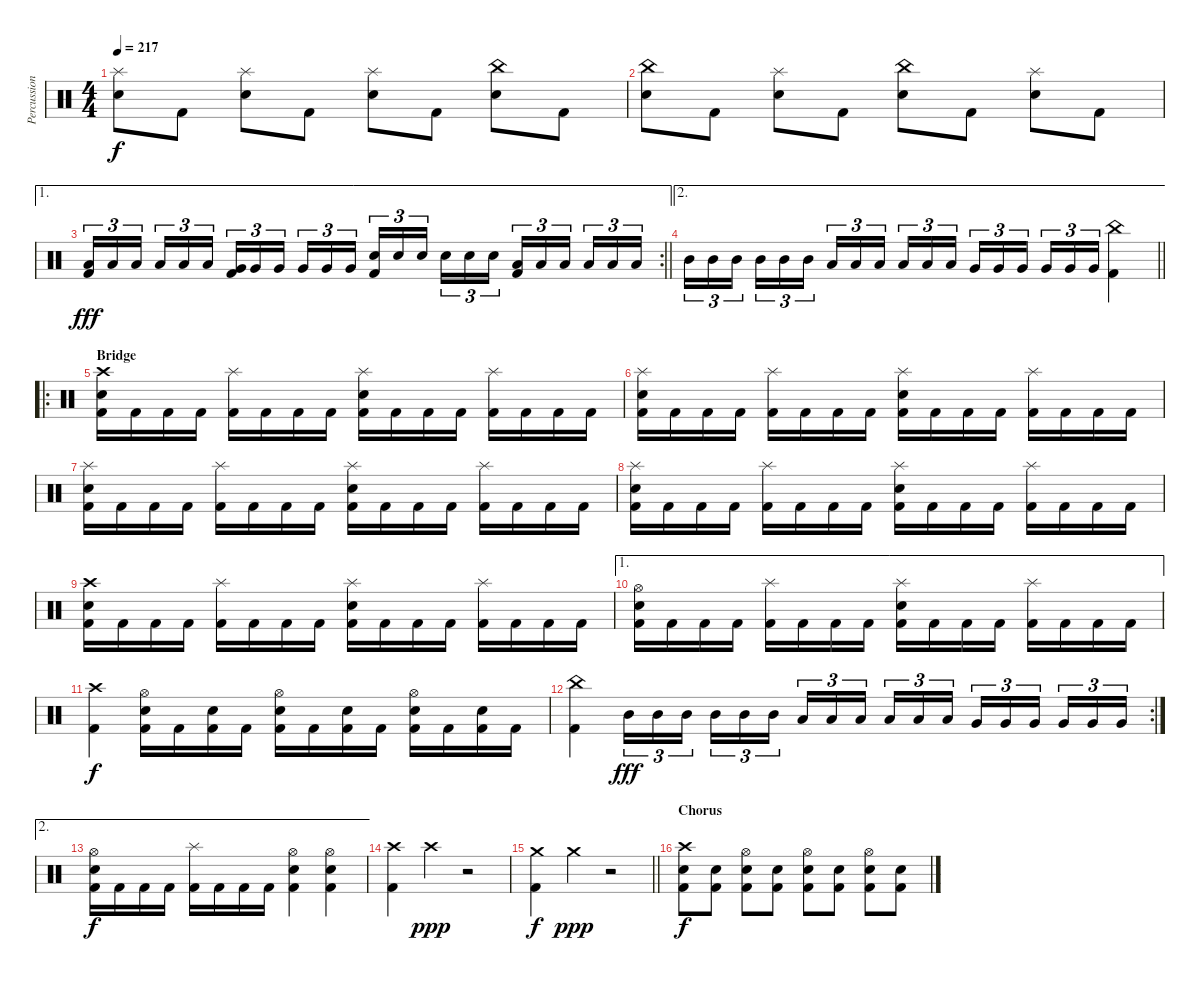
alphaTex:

\track ("Percussion" "Percussion") {instrument percussion}
\staff {score}
\articulation defaults
\ts (4 4)
\tempo 217
\clef neutral
\ks c
("Splash (hit)" "Electric Snare (hit)").8{dy f} "Kick (hit) 2".8 ("Splash (hit)" "Electric Snare (hit)").8 "Kick (hit) 2".8 ("Splash (hit)" "Electric Snare (hit)").8 "Kick (hit) 2".8 ("China (hit)" "Electric Snare (hit)").8 "Kick (hit) 2".8 |
("China (hit)" "Electric Snare (hit)").8 "Kick (hit) 2".8 ("Splash (hit)" "Electric Snare (hit)").8 "Kick (hit) 2".8 ("China (hit)" "Electric Snare (hit)").8 "Kick (hit) 2".8 ("Splash (hit)" "Electric Snare (hit)").8 "Kick (hit) 2".8 |
\ae 1
\rc 2
\barLineRight lightlight
("Low Tom (hit)" "Kick (hit) 2").16{tu (3 2) dy fff} "Low Tom (hit)".16{tu (3 2)} "Low Tom (hit)".16{tu (3 2)} "Low Tom (hit)".16{tu (3 2)} "Low Tom (hit)".16{tu (3 2)} "Low Tom (hit)".16{tu (3 2)} ("Very Low Tom (hit)" "Kick (hit) 2").16{tu (3 2)} "Very Low Tom (hit)".16{tu (3 2)} "Very Low Tom (hit)".16{tu (3 2)} "Very Low Tom (hit)".16{tu (3 2)} "Very Low Tom (hit)".16{tu (3 2)} "Very Low Tom (hit)".16{tu (3 2)} ("Electric Snare (hit)" "Kick (hit) 2").16{tu (3 2)} "Electric Snare (hit)".16{tu (3 2)} "Electric Snare (hit)".16{tu (3 2)} "Electric Snare (hit)".16{tu (3 2)} "Electric Snare (hit)".16{tu (3 2)} "Electric Snare (hit)".16{tu (3 2)} ("Low Tom (hit)" "Kick (hit) 2").16{tu (3 2)} "Low Tom (hit)".16{tu (3 2)} "Low Tom (hit)".16{tu (3 2)} "Low Tom (hit)".16{tu (3 2)} "Low Tom (hit)".16{tu (3 2)} "Low Tom (hit)".16{tu (3 2)} |
\ae 2
\barLineRight lightlight "Mid Tom (hit)".16{tu (3 2)} "Mid Tom (hit)".16{tu (3 2)} "Mid Tom (hit)".16{tu (3 2)} "Mid Tom (hit)".16{tu (3 2)} "Mid Tom (hit)".16{tu (3 2)} "Mid Tom (hit)".16{tu (3 2)} "Low Tom (hit)".16{tu (3 2)} "Low Tom (hit)".16{tu (3 2)} "Low Tom (hit)".16{tu (3 2)} "Low Tom (hit)".16{tu (3 2)} "Low Tom (hit)".16{tu (3 2)} "Low Tom (hit)".16{tu (3 2)} "Very Low Tom (hit)".16{tu (3 2)} "Very Low Tom (hit)".16{tu (3 2)} "Very Low Tom (hit)".16{tu (3 2)} "Very Low Tom (hit)".16{tu (3 2)} "Very Low Tom (hit)".16{tu (3 2)} "Very Low Tom (hit)".16{tu (3 2)}
("China (hit)" "Kick (hit) 2").4 |
\ro
\section ("" "Bridge")
("Crash high (hit)" "Electric Snare (hit)" "Kick (hit) 2").16 "Kick (hit) 2".16 "Kick (hit) 2".16 "Kick (hit) 2".16 ("Splash (hit)" "Kick (hit) 2").16 "Kick (hit) 2".16 "Kick (hit) 2".16 "Kick (hit) 2".16 ("Splash (hit)" "Electric Snare (hit)" "Kick (hit) 2").16 "Kick (hit) 2".16 "Kick (hit) 2".16 "Kick (hit) 2".16 ("Splash (hit)" "Kick (hit) 2").16 "Kick (hit) 2".16 "Kick (hit) 2".16 "Kick (hit) 2".16 |
("Splash (hit)" "Electric Snare (hit)" "Kick (hit) 2").16 "Kick (hit) 2".16 "Kick (hit) 2".16 "Kick (hit) 2".16 ("Splash (hit)" "Kick (hit) 2").16 "Kick (hit) 2".16 "Kick (hit) 2".16 "Kick (hit) 2".16 ("Splash (hit)" "Electric Snare (hit)" "Kick (hit) 2").16 "Kick (hit) 2".16 "Kick (hit) 2".16 "Kick (hit) 2".16 ("Splash (hit)" "Kick (hit) 2").16 "Kick (hit) 2".16 "Kick (hit) 2".16 "Kick (hit) 2".16 |
("Splash (hit)" "Electric Snare (hit)" "Kick (hit) 2").16 "Kick (hit) 2".16 "Kick (hit) 2".16 "Kick (hit) 2".16 ("Splash (hit)" "Kick (hit) 2").16 "Kick (hit) 2".16 "Kick (hit) 2".16 "Kick (hit) 2".16 ("Splash (hit)" "Electric Snare (hit)" "Kick (hit) 2").16 "Kick (hit) 2".16 "Kick (hit) 2".16 "Kick (hit) 2".16 ("Splash (hit)" "Kick (hit) 2").16 "Kick (hit) 2".16 "Kick (hit) 2".16 "Kick (hit) 2".16 |
("Splash (hit)" "Electric Snare (hit)" "Kick (hit) 2").16 "Kick (hit) 2".16 "Kick (hit) 2".16 "Kick (hit) 2".16 ("Splash (hit)" "Kick (hit) 2").16 "Kick (hit) 2".16 "Kick (hit) 2".16 "Kick (hit) 2".16 ("Splash (hit)" "Electric Snare (hit)" "Kick (hit) 2").16 "Kick (hit) 2".16 "Kick (hit) 2".16 "Kick (hit) 2".16 ("Splash (hit)" "Kick (hit) 2").16 "Kick (hit) 2".16 "Kick (hit) 2".16 "Kick (hit) 2".16 |
("Crash high (hit)" "Electric Snare (hit)" "Kick (hit) 2").16 "Kick (hit) 2".16 "Kick (hit) 2".16 "Kick (hit) 2".16 ("Splash (hit)" "Kick (hit) 2").16 "Kick (hit) 2".16 "Kick (hit) 2".16 "Kick (hit) 2".16 ("Splash (hit)" "Electric Snare (hit)" "Kick (hit) 2").16 "Kick (hit) 2".16 "Kick (hit) 2".16 "Kick (hit) 2".16 ("Splash (hit)" "Kick (hit) 2").16 "Kick (hit) 2".16 "Kick (hit) 2".16 "Kick (hit) 2".16 |
\ae 1
("Hi-Hat (open)" "Electric Snare (hit)" "Kick (hit) 2").16 "Kick (hit) 2".16 "Kick (hit) 2".16 "Kick (hit) 2".16 ("Splash (hit)" "Kick (hit) 2").16 "Kick (hit) 2".16 "Kick (hit) 2".16 "Kick (hit) 2".16 ("Splash (hit)" "Electric Snare (hit)" "Kick (hit) 2").16 "Kick (hit) 2".16 "Kick (hit) 2".16 "Kick (hit) 2".16 ("Splash (hit)" "Kick (hit) 2").16 "Kick (hit) 2".16 "Kick (hit) 2".16 "Kick (hit) 2".16 |
("Crash high (hit)" "Kick (hit) 2").4{dy f} ("Hi-Hat (open)" "Electric Snare (hit)" "Kick (hit) 2").16 "Kick (hit) 2".16 ("Electric Snare (hit)" "Kick (hit) 2").16 "Kick (hit) 2".16 ("Hi-Hat (open)" "Electric Snare (hit)" "Kick (hit) 2").16 "Kick (hit) 2".16 ("Electric Snare (hit)" "Kick (hit) 2").16 "Kick (hit) 2".16 ("Hi-Hat (open)" "Electric Snare (hit)" "Kick (hit) 2").16 "Kick (hit) 2".16 ("Electric Snare (hit)" "Kick (hit) 2").16 "Kick (hit) 2".16 |
\rc 2
("China (hit)" "Kick (hit) 2").4 "Mid Tom (hit)".16{tu (3 2) dy fff} "Mid Tom (hit)".16{tu (3 2)} "Mid Tom (hit)".16{tu (3 2)} "Mid Tom (hit)".16{tu (3 2)} "Mid Tom (hit)".16{tu (3 2)} "Mid Tom (hit)".16{tu (3 2)} "Low Tom (hit)".16{tu (3 2)} "Low Tom (hit)".16{tu (3 2)} "Low Tom (hit)".16{tu (3 2)} "Low Tom (hit)".16{tu (3 2)} "Low Tom (hit)".16{tu (3 2)} "Low Tom (hit)".16{tu (3 2)} "Very Low Tom (hit)".16{tu (3 2)} "Very Low Tom (hit)".16{tu (3 2)} "Very Low Tom (hit)".16{tu (3 2)} "Very Low Tom (hit)".16{tu (3 2)} "Very Low Tom (hit)".16{tu (3 2)} "Very Low Tom (hit)".16{tu (3 2)} |
\ae 2
("Hi-Hat (open)" "Electric Snare (hit)" "Kick (hit) 2").16{dy f} "Kick (hit) 2".16 "Kick (hit) 2".16 "Kick (hit) 2".16 ("Splash (hit)" "Kick (hit) 2").16 "Kick (hit) 2".16 "Kick (hit) 2".16 "Kick (hit) 2".16 ("Hi-Hat (open)" "Electric Snare (hit)" "Kick (hit) 2").4 ("Hi-Hat (open)" "Electric Snare (hit)" "Kick (hit) 2").4 |
("Crash high (hit)" "Kick (hit) 2").4 "Crash high (hit)".4{dy ppp} r.2 |
\barLineRight lightlight
("Crash medium (hit)" "Kick (hit) 2").4{dy f} "Crash medium (hit)".4{dy ppp} r.2 |
\section ("" "Chorus")
("Crash high (hit)" "Electric Snare (hit)" "Kick (hit) 2").8{dy f} ("Electric Snare (hit)" "Kick (hit) 2").8 ("Hi-Hat (open)" "Electric Snare (hit)" "Kick (hit) 2").8 ("Electric Snare (hit)" "Kick (hit) 2").8 ("Hi-Hat (open)" "Electric Snare (hit)" "Kick (hit) 2").8 ("Electric Snare (hit)" "Kick (hit) 2").8 ("Hi-Hat (open)" "Electric Snare (hit)" "Kick (hit) 2").8 ("Electric Snare (hit)" "Kick (hit) 2").8
